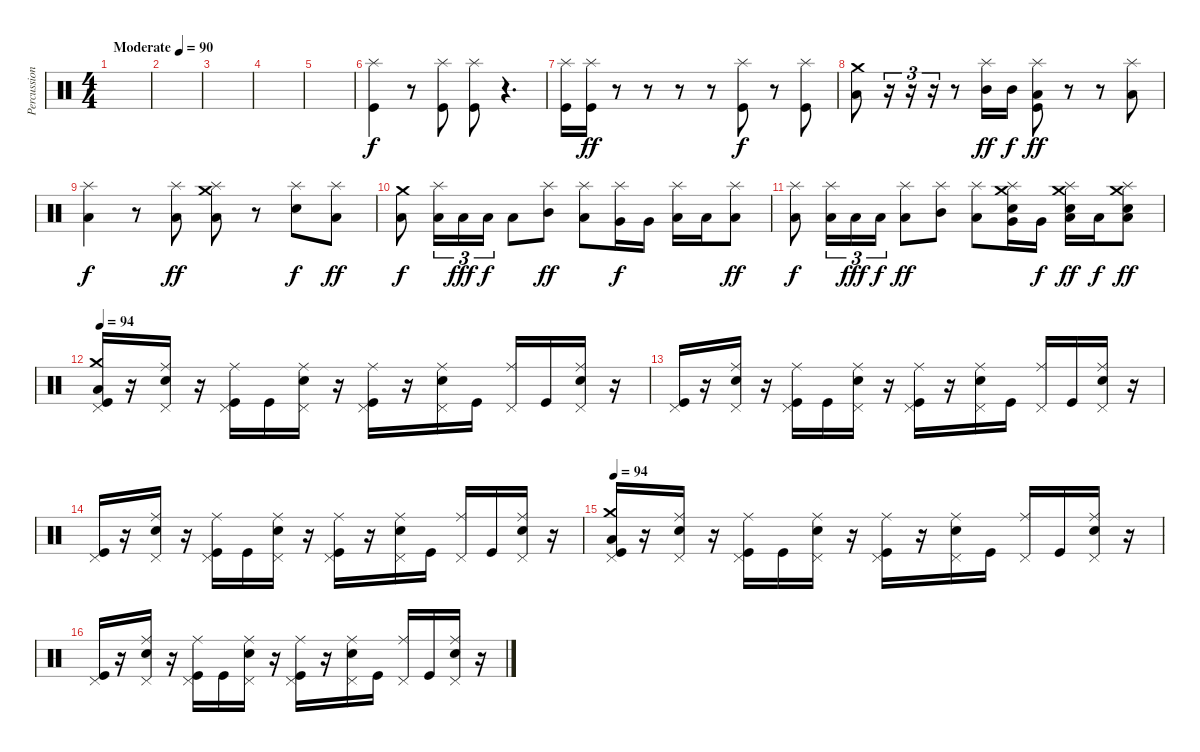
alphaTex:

\track ("Percussion" "Percussion") {instrument percussion}
\staff {score}
\articulation defaults
\ts (4 4)
\tempo (90 "Moderate")
\clef neutral
\ks c
|
|
|
|
|
("Splash (hit)" "Kick (hit)").4 r.8 ("Splash (hit)" "Kick (hit)").8 ("Splash (hit)" "Kick (hit)").8 r.4{d} |
("Splash (hit)" "Kick (hit)").16 ("Splash (hit)" "Kick (hit)").16{dy ff} r.8 r.8 r.8 r.8 ("Splash (hit)" "Kick (hit)").8{dy f} r.8 ("Splash (hit)" "Kick (hit)").8 |
("Crash medium (hit)" "Low Floor Tom (hit)").8 r.16{tu (3 2)} r.16{tu (3 2)} r.16{tu (3 2)} r.8 ("Splash (hit)" "Mid Tom (hit)").16{dy ff} "Mid Tom (hit)".16{dy f} ("Splash (hit)" "Low Tom (hit)" "Kick (hit)").8{dy ff} r.8 r.8 ("Splash (hit)" "Low Tom (hit)").8 |
("Splash (hit)" "Low Floor Tom (hit)").4{dy f} r.8 ("Splash (hit)" "Low Tom (hit)").8{dy ff} ("Crash medium (hit)" "Splash (hit)" "Low Floor Tom (hit)").8 r.8 ("Splash (hit)" "Electric Snare (hit)").8{dy f} ("Splash (hit)" "Low Tom (hit)").8{dy ff} |
("Crash medium (hit)" "Low Floor Tom (hit)").8{dy f} ("Splash (hit)" "Low Floor Tom (hit)").16{tu (3 2)} "Low Floor Tom (hit)".16{tu (3 2) dy fff} "Low Floor Tom (hit)".16{tu (3 2) dy f} "Low Floor Tom (hit)".8 ("Splash (hit)" "Mid Tom (hit)").8{dy ff} ("Splash (hit)" "Low Tom (hit)").8 ("Splash (hit)" "Very Low Tom (hit)").16{dy f} "Very Low Tom (hit)".16 ("Splash (hit)" "Low Floor Tom (hit)").16 "Low Floor Tom (hit)".16 ("Splash (hit)" "Low Tom (hit)").8{dy ff} |
("Splash (hit)" "Low Floor Tom (hit)").8{dy f} ("Splash (hit)" "Low Floor Tom (hit)").16{tu (3 2)} "Low Floor Tom (hit)".16{tu (3 2) dy fff} "Low Floor Tom (hit)".16{tu (3 2) dy f} ("Splash (hit)" "Low Floor Tom (hit)").8{dy ff} ("Splash (hit)" "Mid Tom (hit)").8 ("Splash (hit)" "Low Tom (hit)").8 ("Splash (hit)" "Crash medium (hit)" "Electric Snare (hit)" "Very Low Tom (hit)").16 "Very Low Tom (hit)".16{dy f} ("Splash (hit)" "Crash medium (hit)" "Electric Snare (hit)" "Low Floor Tom (hit)").16{dy ff} "Low Floor Tom (hit)".16{dy f} ("Splash (hit)" "Crash medium (hit)" "Electric Snare (hit)" "Low Tom (hit)").8{dy ff} |
\tempo 94
("Pedal Hi-Hat (hit)" "Crash medium (hit)" "Kick (hit)" "Low Floor Tom (hit)").16 r.16 ("Pedal Hi-Hat (hit)" "Ride (middle)" "Electric Snare (hit)").16 r.16 ("Pedal Hi-Hat (hit)" "Ride (middle)" "Kick (hit)").16 "Kick (hit)".16 ("Pedal Hi-Hat (hit)" "Ride (middle)" "Electric Snare (hit)").16 r.16 ("Pedal Hi-Hat (hit)" "Ride (middle)" "Kick (hit)").16 r.16 ("Pedal Hi-Hat (hit)" "Ride (middle)" "Electric Snare (hit)").16 "Kick (hit)".16 ("Pedal Hi-Hat (hit)" "Ride (middle)").16 "Kick (hit)".16 ("Pedal Hi-Hat (hit)" "Ride (middle)" "Electric Snare (hit)").16 r.16 |
("Pedal Hi-Hat (hit)" "Kick (hit)").16 r.16 ("Pedal Hi-Hat (hit)" "Ride (middle)" "Electric Snare (hit)").16 r.16 ("Pedal Hi-Hat (hit)" "Ride (middle)" "Kick (hit)").16 "Kick (hit)".16 ("Pedal Hi-Hat (hit)" "Ride (middle)" "Electric Snare (hit)").16 r.16 ("Pedal Hi-Hat (hit)" "Ride (middle)" "Kick (hit)").16 r.16 ("Pedal Hi-Hat (hit)" "Ride (middle)" "Electric Snare (hit)").16 "Kick (hit)".16 ("Pedal Hi-Hat (hit)" "Ride (middle)").16 "Kick (hit)".16 ("Pedal Hi-Hat (hit)" "Ride (middle)" "Electric Snare (hit)").16 r.16 |
("Pedal Hi-Hat (hit)" "Kick (hit)").16 r.16 ("Pedal Hi-Hat (hit)" "Ride (middle)" "Electric Snare (hit)").16 r.16 ("Pedal Hi-Hat (hit)" "Ride (middle)" "Kick (hit)").16 "Kick (hit)".16 ("Pedal Hi-Hat (hit)" "Ride (middle)" "Electric Snare (hit)").16 r.16 ("Pedal Hi-Hat (hit)" "Ride (middle)" "Kick (hit)").16 r.16 ("Pedal Hi-Hat (hit)" "Ride (middle)" "Electric Snare (hit)").16 "Kick (hit)".16 ("Pedal Hi-Hat (hit)" "Ride (middle)").16 "Kick (hit)".16 ("Pedal Hi-Hat (hit)" "Ride (middle)" "Electric Snare (hit)").16 r.16 |
\tempo 94
("Pedal Hi-Hat (hit)" "Crash medium (hit)" "Kick (hit)" "Low Floor Tom (hit)").16 r.16 ("Pedal Hi-Hat (hit)" "Ride (middle)" "Electric Snare (hit)").16 r.16 ("Pedal Hi-Hat (hit)" "Ride (middle)" "Kick (hit)").16 "Kick (hit)".16 ("Pedal Hi-Hat (hit)" "Ride (middle)" "Electric Snare (hit)").16 r.16 ("Pedal Hi-Hat (hit)" "Ride (middle)" "Kick (hit)").16 r.16 ("Pedal Hi-Hat (hit)" "Ride (middle)" "Electric Snare (hit)").16 "Kick (hit)".16 ("Pedal Hi-Hat (hit)" "Ride (middle)").16 "Kick (hit)".16 ("Pedal Hi-Hat (hit)" "Ride (middle)" "Electric Snare (hit)").16 r.16 |
("Pedal Hi-Hat (hit)" "Kick (hit)").16 r.16 ("Pedal Hi-Hat (hit)" "Ride (middle)" "Electric Snare (hit)").16 r.16 ("Pedal Hi-Hat (hit)" "Ride (middle)" "Kick (hit)").16 "Kick (hit)".16 ("Pedal Hi-Hat (hit)" "Ride (middle)" "Electric Snare (hit)").16 r.16 ("Pedal Hi-Hat (hit)" "Ride (middle)" "Kick (hit)").16 r.16 ("Pedal Hi-Hat (hit)" "Ride (middle)" "Electric Snare (hit)").16 "Kick (hit)".16 ("Pedal Hi-Hat (hit)" "Ride (middle)").16 "Kick (hit)".16 ("Pedal Hi-Hat (hit)" "Ride (middle)" "Electric Snare (hit)").16 r.16
